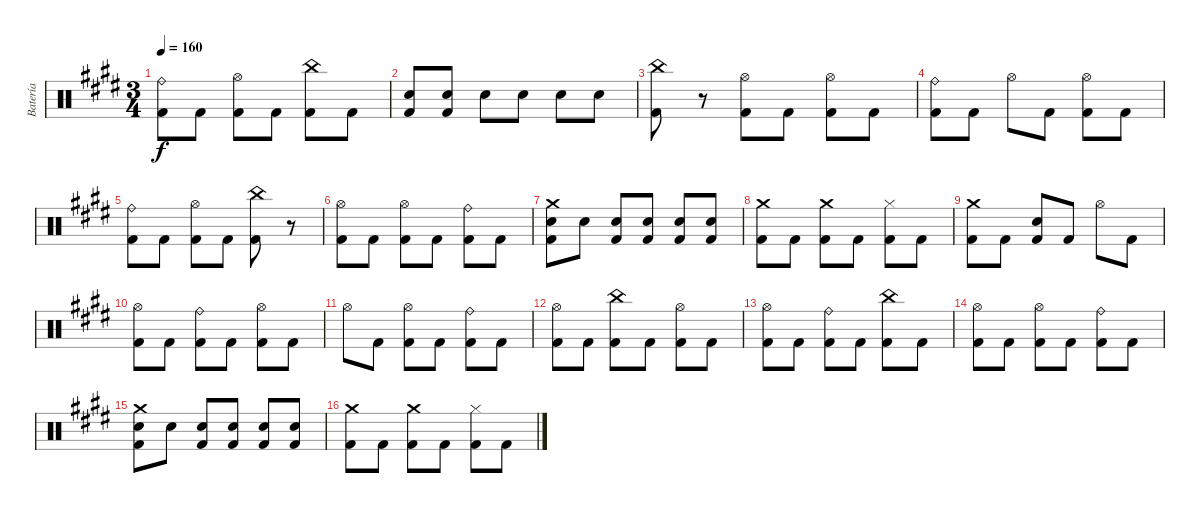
\track ("Batería" "Batería") {instrument percussion}
\staff {score}
\articulation defaults
\ts (3 4)
\tempo 160
\clef neutral
\ks c#minor
("Ride (bell)" "Kick (hit) 2").8{dy f} "Kick (hit) 2".8 ("Hi-Hat (open)" "Kick (hit) 2").8 "Kick (hit) 2".8 ("China (hit)" "Kick (hit) 2").8 "Kick (hit) 2".8 |
("Snare (hit) 2" "Kick (hit) 2").8 ("Snare (hit) 2" "Kick (hit) 2").8 "Snare (hit) 2".8 "Snare (hit) 2".8 "Snare (hit) 2".8 "Snare (hit) 2".8 |
("China (hit)" "Kick (hit) 2").8 r.8 ("Hi-Hat (open)" "Kick (hit) 2").8 "Kick (hit) 2".8 ("Hi-Hat (open)" "Kick (hit) 2").8 "Kick (hit) 2".8 |
("Ride (bell)" "Kick (hit) 2").8 "Kick (hit) 2".8 "Hi-Hat (open)".8 "Kick (hit) 2".8 ("Hi-Hat (open)" "Kick (hit) 2").8 "Kick (hit) 2".8 |
("Ride (bell)" "Kick (hit) 2").8 "Kick (hit) 2".8 ("Hi-Hat (open)" "Kick (hit) 2").8 "Kick (hit) 2".8 ("China (hit)" "Kick (hit) 2").8 r.8 |
("Hi-Hat (open)" "Kick (hit) 2").8 "Kick (hit) 2".8 ("Hi-Hat (open)" "Kick (hit) 2").8 "Kick (hit) 2".8 ("Ride (bell)" "Kick (hit) 2").8 "Kick (hit) 2".8 |
("Crash medium (hit)" "Snare (hit) 2" "Kick (hit) 2").8 "Snare (hit) 2".8 ("Snare (hit) 2" "Kick (hit) 2").8 ("Snare (hit) 2" "Kick (hit) 2").8 ("Snare (hit) 2" "Kick (hit) 2").8 ("Snare (hit) 2" "Kick (hit) 2").8 |
("Crash medium (hit)" "Kick (hit) 2").8 "Kick (hit) 2".8 ("Crash medium (hit)" "Kick (hit) 2").8 "Kick (hit) 2".8 ("Hi-Hat (closed)" "Kick (hit) 2").8 "Kick (hit) 2".8 |
("Crash medium (hit)" "Kick (hit) 2").8 "Kick (hit) 2".8 ("Snare (hit) 2" "Kick (hit) 2").8 "Kick (hit) 2".8 "Hi-Hat (open)".8 "Kick (hit) 2".8 |
("Hi-Hat (open)" "Kick (hit) 2").8 "Kick (hit) 2".8 ("Ride (bell)" "Kick (hit) 2").8 "Kick (hit) 2".8 ("Hi-Hat (open)" "Kick (hit) 2").8 "Kick (hit) 2".8 |
"Hi-Hat (open)".8 "Kick (hit) 2".8 ("Hi-Hat (open)" "Kick (hit) 2").8 "Kick (hit) 2".8 ("Ride (bell)" "Kick (hit) 2").8 "Kick (hit) 2".8 |
("Hi-Hat (open)" "Kick (hit) 2").8 "Kick (hit) 2".8 ("China (hit)" "Kick (hit) 2").8 "Kick (hit) 2".8 ("Hi-Hat (open)" "Kick (hit) 2").8 "Kick (hit) 2".8 |
("Hi-Hat (open)" "Kick (hit) 2").8 "Kick (hit) 2".8 ("Ride (bell)" "Kick (hit) 2").8 "Kick (hit) 2".8 ("China (hit)" "Kick (hit) 2").8 "Kick (hit) 2".8 |
("Hi-Hat (open)" "Kick (hit) 2").8 "Kick (hit) 2".8 ("Hi-Hat (open)" "Kick (hit) 2").8 "Kick (hit) 2".8 ("Ride (bell)" "Kick (hit) 2").8 "Kick (hit) 2".8 |
("Crash medium (hit)" "Snare (hit) 2" "Kick (hit) 2").8 "Snare (hit) 2".8 ("Snare (hit) 2" "Kick (hit) 2").8 ("Snare (hit) 2" "Kick (hit) 2").8 ("Snare (hit) 2" "Kick (hit) 2").8 ("Snare (hit) 2" "Kick (hit) 2").8 |
("Crash medium (hit)" "Kick (hit) 2").8 "Kick (hit) 2".8 ("Crash medium (hit)" "Kick (hit) 2").8 "Kick (hit) 2".8 ("Hi-Hat (closed)" "Kick (hit) 2").8 "Kick (hit) 2".8
